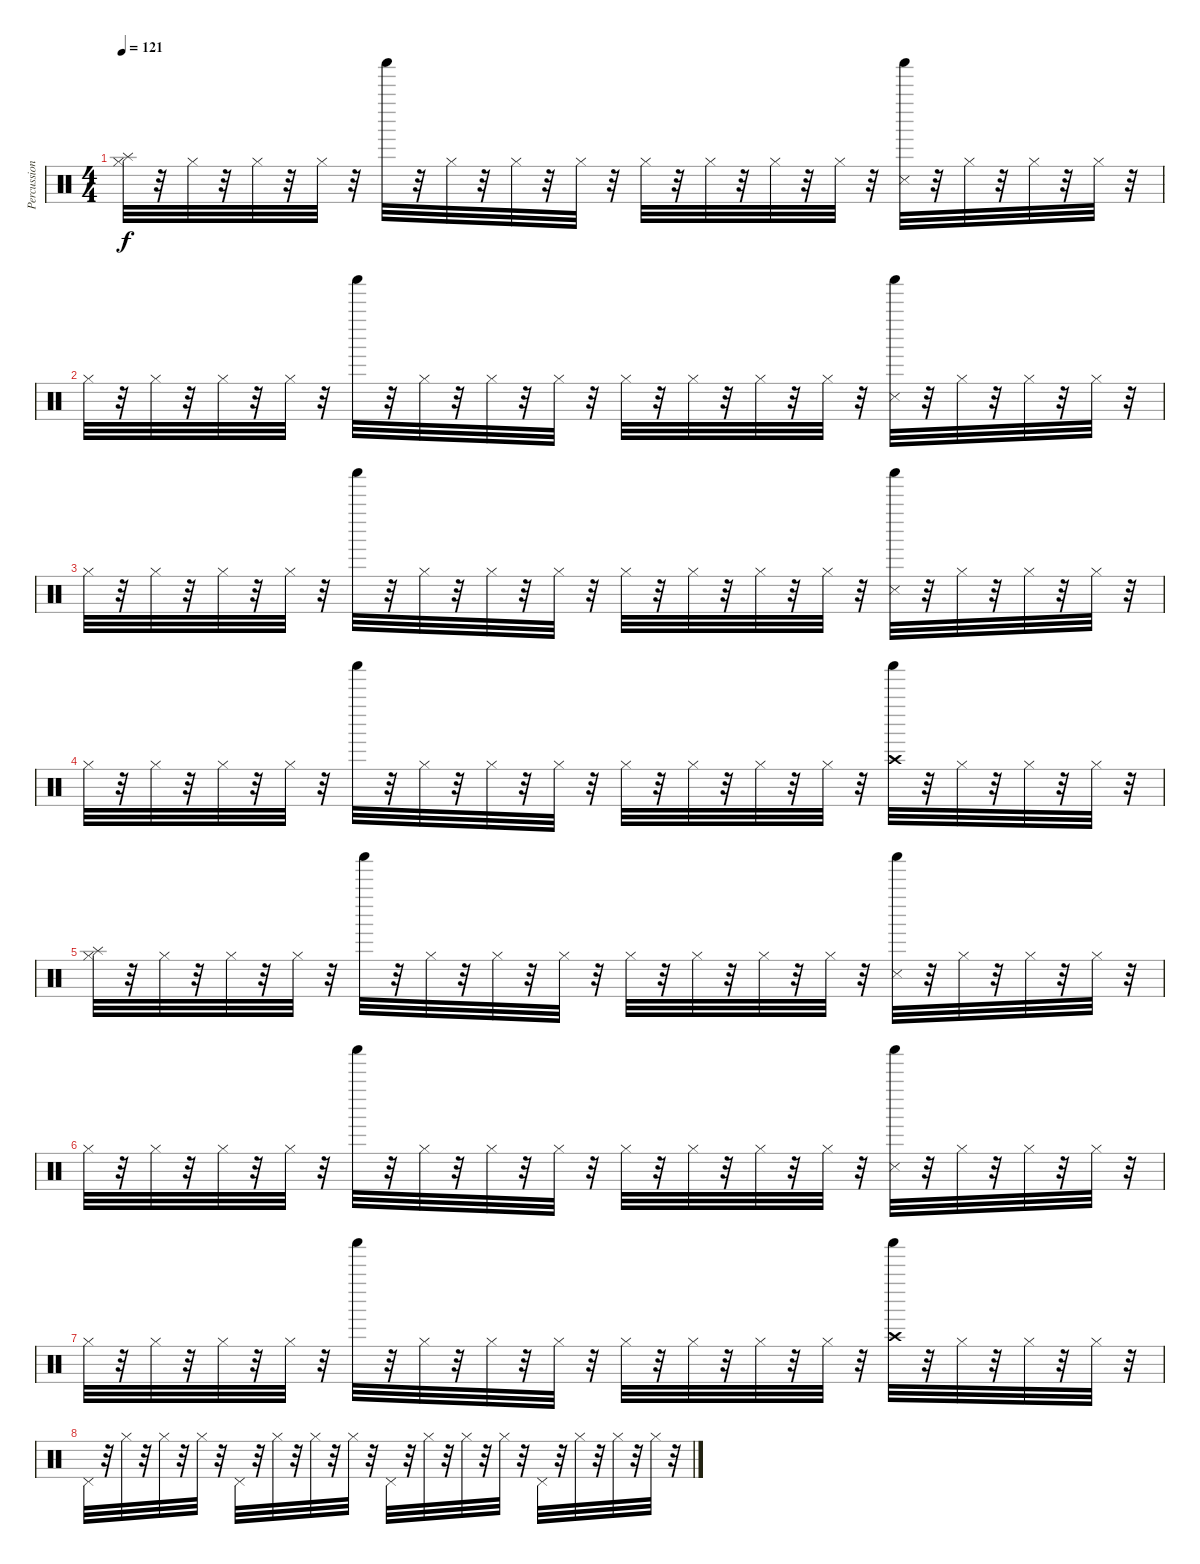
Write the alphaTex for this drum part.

\track ("Percussions" "Percussion") {instrument percussion}
\staff {score}
\articulation defaults
\ts (4 4)
\tempo 121
\clef neutral
\ks c
("Hi-Hat (closed)" "Splash (hit)").32{dy f} r.32 "Hi-Hat (closed)".32 r.32 "Hi-Hat (closed)".32 r.32 "Hi-Hat (closed)".32 r.32 "Shaker (hit)".32 r.32 "Hi-Hat (closed)".32 r.32 "Hi-Hat (closed)".32 r.32 "Hi-Hat (closed)".32 r.32 "Hi-Hat (closed)".32 r.32 "Hi-Hat (closed)".32 r.32 "Hi-Hat (closed)".32 r.32 "Hi-Hat (closed)".32 r.32 ("Shaker (hit)" "Snare (side stick) 3").32 r.32 "Hi-Hat (closed)".32 r.32 "Hi-Hat (closed)".32 r.32 "Hi-Hat (closed)".32 r.32 |
"Hi-Hat (closed)".32 r.32 "Hi-Hat (closed)".32 r.32 "Hi-Hat (closed)".32 r.32 "Hi-Hat (closed)".32 r.32 "Shaker (hit)".32 r.32 "Hi-Hat (closed)".32 r.32 "Hi-Hat (closed)".32 r.32 "Hi-Hat (closed)".32 r.32 "Hi-Hat (closed)".32 r.32 "Hi-Hat (closed)".32 r.32 "Hi-Hat (closed)".32 r.32 "Hi-Hat (closed)".32 r.32 ("Shaker (hit)" "Snare (side stick) 3").32 r.32 "Hi-Hat (closed)".32 r.32 "Hi-Hat (closed)".32 r.32 "Hi-Hat (closed)".32 r.32 |
"Hi-Hat (closed)".32 r.32 "Hi-Hat (closed)".32 r.32 "Hi-Hat (closed)".32 r.32 "Hi-Hat (closed)".32 r.32 "Shaker (hit)".32 r.32 "Hi-Hat (closed)".32 r.32 "Hi-Hat (closed)".32 r.32 "Hi-Hat (closed)".32 r.32 "Hi-Hat (closed)".32 r.32 "Hi-Hat (closed)".32 r.32 "Hi-Hat (closed)".32 r.32 "Hi-Hat (closed)".32 r.32 ("Shaker (hit)" "Snare (side stick) 3").32 r.32 "Hi-Hat (closed)".32 r.32 "Hi-Hat (closed)".32 r.32 "Hi-Hat (closed)".32 r.32 |
"Hi-Hat (closed)".32 r.32 "Hi-Hat (closed)".32 r.32 "Hi-Hat (closed)".32 r.32 "Hi-Hat (closed)".32 r.32 "Shaker (hit)".32 r.32 "Hi-Hat (closed)".32 r.32 "Hi-Hat (closed)".32 r.32 "Hi-Hat (closed)".32 r.32 "Hi-Hat (closed)".32 r.32 "Hi-Hat (closed)".32 r.32 "Hi-Hat (closed)".32 r.32 "Hi-Hat (closed)".32 r.32 ("Shaker (hit)" "Crash high (hit)").32 r.32 "Hi-Hat (closed)".32 r.32 "Hi-Hat (closed)".32 r.32 "Hi-Hat (closed)".32 r.32 |
("Hi-Hat (closed)" "Splash (hit)").32 r.32 "Hi-Hat (closed)".32 r.32 "Hi-Hat (closed)".32 r.32 "Hi-Hat (closed)".32 r.32 "Shaker (hit)".32 r.32 "Hi-Hat (closed)".32 r.32 "Hi-Hat (closed)".32 r.32 "Hi-Hat (closed)".32 r.32 "Hi-Hat (closed)".32 r.32 "Hi-Hat (closed)".32 r.32 "Hi-Hat (closed)".32 r.32 "Hi-Hat (closed)".32 r.32 ("Shaker (hit)" "Snare (side stick) 3").32 r.32 "Hi-Hat (closed)".32 r.32 "Hi-Hat (closed)".32 r.32 "Hi-Hat (closed)".32 r.32 |
"Hi-Hat (closed)".32 r.32 "Hi-Hat (closed)".32 r.32 "Hi-Hat (closed)".32 r.32 "Hi-Hat (closed)".32 r.32 "Shaker (hit)".32 r.32 "Hi-Hat (closed)".32 r.32 "Hi-Hat (closed)".32 r.32 "Hi-Hat (closed)".32 r.32 "Hi-Hat (closed)".32 r.32 "Hi-Hat (closed)".32 r.32 "Hi-Hat (closed)".32 r.32 "Hi-Hat (closed)".32 r.32 ("Shaker (hit)" "Snare (side stick) 3").32 r.32 "Hi-Hat (closed)".32 r.32 "Hi-Hat (closed)".32 r.32 "Hi-Hat (closed)".32 r.32 |
"Hi-Hat (closed)".32 r.32 "Hi-Hat (closed)".32 r.32 "Hi-Hat (closed)".32 r.32 "Hi-Hat (closed)".32 r.32 "Shaker (hit)".32 r.32 "Hi-Hat (closed)".32 r.32 "Hi-Hat (closed)".32 r.32 "Hi-Hat (closed)".32 r.32 "Hi-Hat (closed)".32 r.32 "Hi-Hat (closed)".32 r.32 "Hi-Hat (closed)".32 r.32 "Hi-Hat (closed)".32 r.32 ("Shaker (hit)" "Crash high (hit)").32 r.32 "Hi-Hat (closed)".32 r.32 "Hi-Hat (closed)".32 r.32 "Hi-Hat (closed)".32 r.32 |
"Pedal Hi-Hat (hit)".32 r.32 "Hi-Hat (closed)".32 r.32 "Hi-Hat (closed)".32 r.32 "Hi-Hat (closed)".32 r.32 "Pedal Hi-Hat (hit)".32 r.32 "Hi-Hat (closed)".32 r.32 "Hi-Hat (closed)".32 r.32 "Hi-Hat (closed)".32 r.32 "Pedal Hi-Hat (hit)".32 r.32 "Hi-Hat (closed)".32 r.32 "Hi-Hat (closed)".32 r.32 "Hi-Hat (closed)".32 r.32 "Pedal Hi-Hat (hit)".32 r.32 "Hi-Hat (closed)".32 r.32 "Hi-Hat (closed)".32 r.32 "Hi-Hat (closed)".32 r.32
